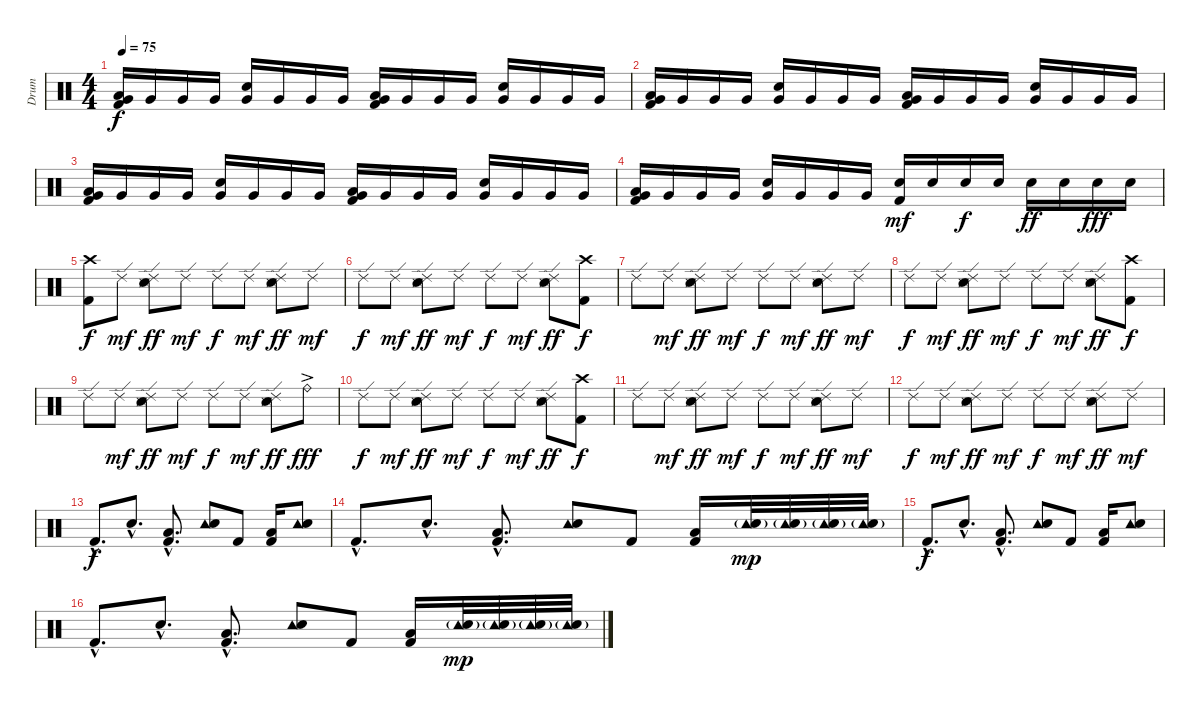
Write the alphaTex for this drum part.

\track ("Drum" "Drum") {instrument percussion}
\staff {score}
\articulation defaults
\ts (4 4)
\tempo 75
\clef neutral
\ks c
("Low Tom (hit)" "Very Low Tom (hit)" "Kick (hit) 2").16{dy f} "Very Low Tom (hit)".16 "Very Low Tom (hit)".16 "Very Low Tom (hit)".16 ("Snare (hit) 2" "Very Low Tom (hit)").16 "Very Low Tom (hit)".16 "Very Low Tom (hit)".16 "Very Low Tom (hit)".16 ("Low Tom (hit)" "Very Low Tom (hit)" "Kick (hit) 2").16 "Very Low Tom (hit)".16 "Very Low Tom (hit)".16 "Very Low Tom (hit)".16 ("Snare (hit) 2" "Very Low Tom (hit)").16 "Very Low Tom (hit)".16 "Very Low Tom (hit)".16 "Very Low Tom (hit)".16 |
("Low Tom (hit)" "Very Low Tom (hit)" "Kick (hit) 2").16 "Very Low Tom (hit)".16 "Very Low Tom (hit)".16 "Very Low Tom (hit)".16 ("Snare (hit) 2" "Very Low Tom (hit)").16 "Very Low Tom (hit)".16 "Very Low Tom (hit)".16 "Very Low Tom (hit)".16 ("Low Tom (hit)" "Very Low Tom (hit)" "Kick (hit) 2").16 "Very Low Tom (hit)".16 "Very Low Tom (hit)".16 "Very Low Tom (hit)".16 ("Snare (hit) 2" "Very Low Tom (hit)").16 "Very Low Tom (hit)".16 "Very Low Tom (hit)".16 "Very Low Tom (hit)".16 |
("Low Tom (hit)" "Very Low Tom (hit)" "Kick (hit) 2").16 "Very Low Tom (hit)".16 "Very Low Tom (hit)".16 "Very Low Tom (hit)".16 ("Snare (hit) 2" "Very Low Tom (hit)").16 "Very Low Tom (hit)".16 "Very Low Tom (hit)".16 "Very Low Tom (hit)".16 ("Low Tom (hit)" "Very Low Tom (hit)" "Kick (hit) 2").16 "Very Low Tom (hit)".16 "Very Low Tom (hit)".16 "Very Low Tom (hit)".16 ("Snare (hit) 2" "Very Low Tom (hit)").16 "Very Low Tom (hit)".16 "Very Low Tom (hit)".16 "Very Low Tom (hit)".16 |
("Low Tom (hit)" "Very Low Tom (hit)" "Kick (hit) 2").16 "Very Low Tom (hit)".16 "Very Low Tom (hit)".16 "Very Low Tom (hit)".16 ("Snare (hit) 2" "Very Low Tom (hit)").16 "Very Low Tom (hit)".16 "Very Low Tom (hit)".16 "Very Low Tom (hit)".16 ("Snare (hit) 2" "Kick (hit) 2").16{dy mf} "Snare (hit) 2".16 "Snare (hit) 2".16{dy f} "Snare (hit) 2".16 "Snare (hit) 2".16{dy ff} "Snare (hit) 2".16 "Snare (hit) 2".16{dy fff} "Snare (hit) 2".16 |
("Crash high (hit)" "Kick (hit) 2").8{dy f} "Ride (edge) 2".8{dy mf} ("Ride (edge) 2" "Snare (side stick) 3" "Electric Snare (hit)").8{dy ff} "Ride (edge) 2".8{dy mf} "Ride (edge) 2".8{dy f} "Ride (edge) 2".8{dy mf} ("Ride (edge) 2" "Snare (side stick) 3" "Electric Snare (hit)").8{dy ff} "Ride (edge) 2".8{dy mf} |
"Ride (edge) 2".8{dy f} "Ride (edge) 2".8{dy mf} ("Ride (edge) 2" "Snare (side stick) 3" "Electric Snare (hit)").8{dy ff} "Ride (edge) 2".8{dy mf} "Ride (edge) 2".8{dy f} "Ride (edge) 2".8{dy mf} ("Ride (edge) 2" "Snare (side stick) 3" "Electric Snare (hit)").8{dy ff} ("Crash high (hit)" "Kick (hit) 2").8{dy f} |
"Ride (edge) 2".8 "Ride (edge) 2".8{dy mf} ("Ride (edge) 2" "Snare (side stick) 3" "Electric Snare (hit)").8{dy ff} "Ride (edge) 2".8{dy mf} "Ride (edge) 2".8{dy f} "Ride (edge) 2".8{dy mf} ("Ride (edge) 2" "Snare (side stick) 3" "Electric Snare (hit)").8{dy ff} "Ride (edge) 2".8{dy mf} |
"Ride (edge) 2".8{dy f} "Ride (edge) 2".8{dy mf} ("Ride (edge) 2" "Snare (side stick) 3" "Electric Snare (hit)").8{dy ff} "Ride (edge) 2".8{dy mf} "Ride (edge) 2".8{dy f} "Ride (edge) 2".8{dy mf} ("Ride (edge) 2" "Snare (side stick) 3" "Electric Snare (hit)").8{dy ff} ("Crash high (hit)" "Kick (hit) 2").8{dy f} |
"Ride (edge) 2".8 "Ride (edge) 2".8{dy mf} ("Ride (edge) 2" "Snare (side stick) 3" "Electric Snare (hit)").8{dy ff} "Ride (edge) 2".8{dy mf} "Ride (edge) 2".8{dy f} "Ride (edge) 2".8{dy mf} ("Ride (edge) 2" "Snare (side stick) 3" "Electric Snare (hit)").8{dy ff} "Ride (bell)"{ac}.8{dy fff} |
"Ride (edge) 2".8{dy f} "Ride (edge) 2".8{dy mf} ("Ride (edge) 2" "Snare (side stick) 3" "Electric Snare (hit)").8{dy ff} "Ride (edge) 2".8{dy mf} "Ride (edge) 2".8{dy f} "Ride (edge) 2".8{dy mf} ("Ride (edge) 2" "Snare (side stick) 3" "Electric Snare (hit)").8{dy ff} ("Crash high (hit)" "Kick (hit) 2").8{dy f} |
"Ride (edge) 2".8 "Ride (edge) 2".8{dy mf} ("Ride (edge) 2" "Snare (side stick) 3" "Electric Snare (hit)").8{dy ff} "Ride (edge) 2".8{dy mf} "Ride (edge) 2".8{dy f} "Ride (edge) 2".8{dy mf} ("Ride (edge) 2" "Snare (side stick) 3" "Electric Snare (hit)").8{dy ff} "Ride (edge) 2".8{dy mf} |
"Ride (edge) 2".8{dy f} "Ride (edge) 2".8{dy mf} ("Ride (edge) 2" "Snare (side stick) 3" "Electric Snare (hit)").8{dy ff} "Ride (edge) 2".8{dy mf} "Ride (edge) 2".8{dy f} "Ride (edge) 2".8{dy mf} ("Ride (edge) 2" "Snare (side stick) 3" "Electric Snare (hit)").8{dy ff} "Ride (edge) 2".8{dy mf} |
"Kick (hit) 2"{hac}.8{d dy f} "Snare (hit) 2"{hac}.8{d} ("Low Floor Tom (hit)"{hac} "Kick (hit) 2"{hac}).8{d} ("Tambourine (hit)" "Snare (hit) 2").8 "Kick (hit) 2".8 ("Low Tom (hit)" "Kick (hit) 2").16 ("Tambourine (hit)" "Snare (hit) 2").8 |
"Kick (hit) 2"{hac}.8{d} "Snare (hit) 2"{hac}.8{d} ("Low Floor Tom (hit)"{hac} "Kick (hit) 2"{hac}).8{d} ("Tambourine (hit)" "Snare (hit) 2").8 "Kick (hit) 2".8 ("Low Tom (hit)" "Kick (hit) 2").16 ("Tambourine (hit)" "Electric Snare (hit)"{g}).32{dy mp} ("Tambourine (hit)" "Electric Snare (hit)"{g}).32 ("Tambourine (hit)" "Electric Snare (hit)"{g}).32 ("Tambourine (hit)" "Electric Snare (hit)"{g}).32 |
"Kick (hit) 2"{hac}.8{d dy f} "Snare (hit) 2"{hac}.8{d} ("Low Floor Tom (hit)"{hac} "Kick (hit) 2"{hac}).8{d} ("Tambourine (hit)" "Snare (hit) 2").8 "Kick (hit) 2".8 ("Low Tom (hit)" "Kick (hit) 2").16 ("Tambourine (hit)" "Snare (hit) 2").8 |
"Kick (hit) 2"{hac}.8{d} "Snare (hit) 2"{hac}.8{d} ("Low Floor Tom (hit)"{hac} "Kick (hit) 2"{hac}).8{d} ("Tambourine (hit)" "Snare (hit) 2").8 "Kick (hit) 2".8 ("Low Tom (hit)" "Kick (hit) 2").16 ("Tambourine (hit)" "Electric Snare (hit)"{g}).32{dy mp} ("Tambourine (hit)" "Electric Snare (hit)"{g}).32 ("Tambourine (hit)" "Electric Snare (hit)"{g}).32 ("Tambourine (hit)" "Electric Snare (hit)"{g}).32
